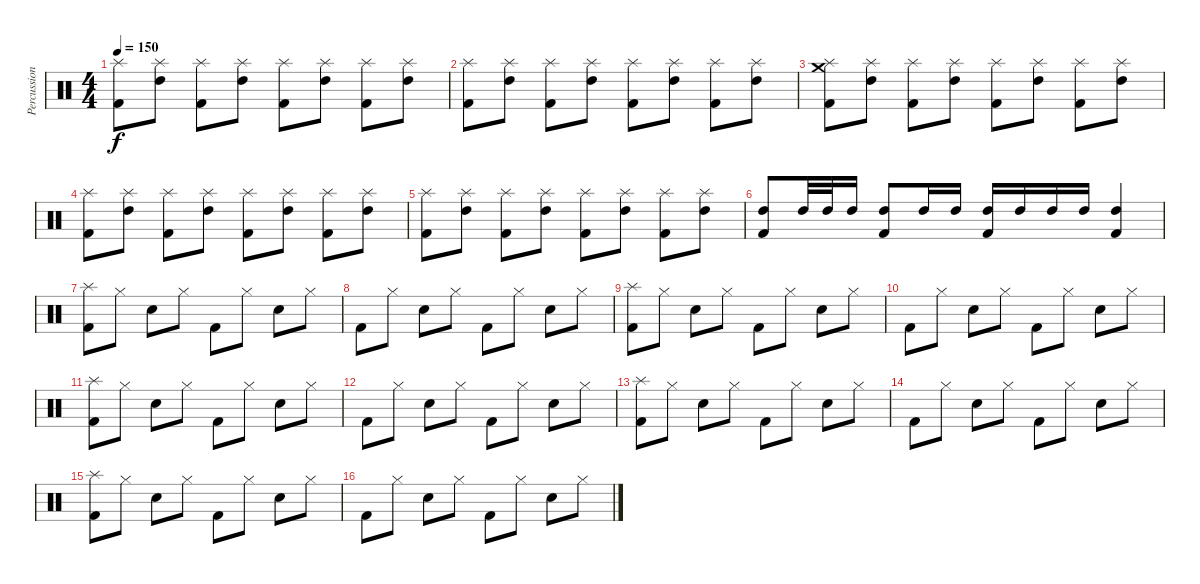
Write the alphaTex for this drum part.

\track ("Percussions" "Percussion") {instrument percussion}
\staff {score}
\articulation defaults
\ts (4 4)
\tempo 150
\clef neutral
\ks c
("Kick (hit) 2" "Splash (hit)").8{dy f} ("High Tom (hit)" "Splash (hit)").8 ("Kick (hit) 2" "Splash (hit)").8 ("High Tom (hit)" "Splash (hit)").8 ("Kick (hit) 2" "Splash (hit)").8 ("High Tom (hit)" "Splash (hit)").8 ("Kick (hit) 2" "Splash (hit)").8 ("High Tom (hit)" "Splash (hit)").8 |
("Kick (hit) 2" "Splash (hit)").8 ("High Tom (hit)" "Splash (hit)").8 ("Kick (hit) 2" "Splash (hit)").8 ("High Tom (hit)" "Splash (hit)").8 ("Kick (hit) 2" "Splash (hit)").8 ("High Tom (hit)" "Splash (hit)").8 ("Kick (hit) 2" "Splash (hit)").8 ("High Tom (hit)" "Splash (hit)").8 |
("Kick (hit) 2" "Crash medium (hit)" "Splash (hit)").8 ("High Tom (hit)" "Splash (hit)").8 ("Kick (hit) 2" "Splash (hit)").8 ("High Tom (hit)" "Splash (hit)").8 ("Kick (hit) 2" "Splash (hit)").8 ("High Tom (hit)" "Splash (hit)").8 ("Kick (hit) 2" "Splash (hit)").8 ("High Tom (hit)" "Splash (hit)").8 |
("Kick (hit) 2" "Splash (hit)").8 ("High Tom (hit)" "Splash (hit)").8 ("Kick (hit) 2" "Splash (hit)").8 ("High Tom (hit)" "Splash (hit)").8 ("Kick (hit) 2" "Splash (hit)").8 ("High Tom (hit)" "Splash (hit)").8 ("Kick (hit) 2" "Splash (hit)").8 ("High Tom (hit)" "Splash (hit)").8 |
("Kick (hit) 2" "Splash (hit)").8 ("High Tom (hit)" "Splash (hit)").8 ("Kick (hit) 2" "Splash (hit)").8 ("High Tom (hit)" "Splash (hit)").8 ("Kick (hit) 2" "Splash (hit)").8 ("High Tom (hit)" "Splash (hit)").8 ("Kick (hit) 2" "Splash (hit)").8 ("High Tom (hit)" "Splash (hit)").8 |
("Kick (hit) 2" "High Tom (hit)").8 "High Tom (hit)".32 "High Tom (hit)".32 "High Tom (hit)".16 ("Kick (hit) 2" "High Tom (hit)").8 "High Tom (hit)".16 "High Tom (hit)".16 ("Kick (hit) 2" "High Tom (hit)").16 "High Tom (hit)".16 "High Tom (hit)".16 "High Tom (hit)".16 ("Kick (hit) 2" "High Tom (hit)").4 |
("Kick (hit) 2" "Splash (hit)").8 "Hi-Hat (closed)".8 "Electric Snare (hit)".8 "Hi-Hat (closed)".8 "Kick (hit) 2".8 "Hi-Hat (closed)".8 "Electric Snare (hit)".8 "Hi-Hat (closed)".8 |
"Kick (hit) 2".8 "Hi-Hat (closed)".8 "Electric Snare (hit)".8 "Hi-Hat (closed)".8 "Kick (hit) 2".8 "Hi-Hat (closed)".8 "Electric Snare (hit)".8 "Hi-Hat (closed)".8 |
("Kick (hit) 2" "Splash (hit)").8 "Hi-Hat (closed)".8 "Electric Snare (hit)".8 "Hi-Hat (closed)".8 "Kick (hit) 2".8 "Hi-Hat (closed)".8 "Electric Snare (hit)".8 "Hi-Hat (closed)".8 |
"Kick (hit) 2".8 "Hi-Hat (closed)".8 "Electric Snare (hit)".8 "Hi-Hat (closed)".8 "Kick (hit) 2".8 "Hi-Hat (closed)".8 "Electric Snare (hit)".8 "Hi-Hat (closed)".8 |
("Kick (hit) 2" "Splash (hit)").8 "Hi-Hat (closed)".8 "Electric Snare (hit)".8 "Hi-Hat (closed)".8 "Kick (hit) 2".8 "Hi-Hat (closed)".8 "Electric Snare (hit)".8 "Hi-Hat (closed)".8 |
"Kick (hit) 2".8 "Hi-Hat (closed)".8 "Electric Snare (hit)".8 "Hi-Hat (closed)".8 "Kick (hit) 2".8 "Hi-Hat (closed)".8 "Electric Snare (hit)".8 "Hi-Hat (closed)".8 |
("Kick (hit) 2" "Splash (hit)").8 "Hi-Hat (closed)".8 "Electric Snare (hit)".8 "Hi-Hat (closed)".8 "Kick (hit) 2".8 "Hi-Hat (closed)".8 "Electric Snare (hit)".8 "Hi-Hat (closed)".8 |
"Kick (hit) 2".8 "Hi-Hat (closed)".8 "Electric Snare (hit)".8 "Hi-Hat (closed)".8 "Kick (hit) 2".8 "Hi-Hat (closed)".8 "Electric Snare (hit)".8 "Hi-Hat (closed)".8 |
("Kick (hit) 2" "Splash (hit)").8 "Hi-Hat (closed)".8 "Electric Snare (hit)".8 "Hi-Hat (closed)".8 "Kick (hit) 2".8 "Hi-Hat (closed)".8 "Electric Snare (hit)".8 "Hi-Hat (closed)".8 |
"Kick (hit) 2".8 "Hi-Hat (closed)".8 "Electric Snare (hit)".8 "Hi-Hat (closed)".8 "Kick (hit) 2".8 "Hi-Hat (closed)".8 "Electric Snare (hit)".8 "Hi-Hat (closed)".8
